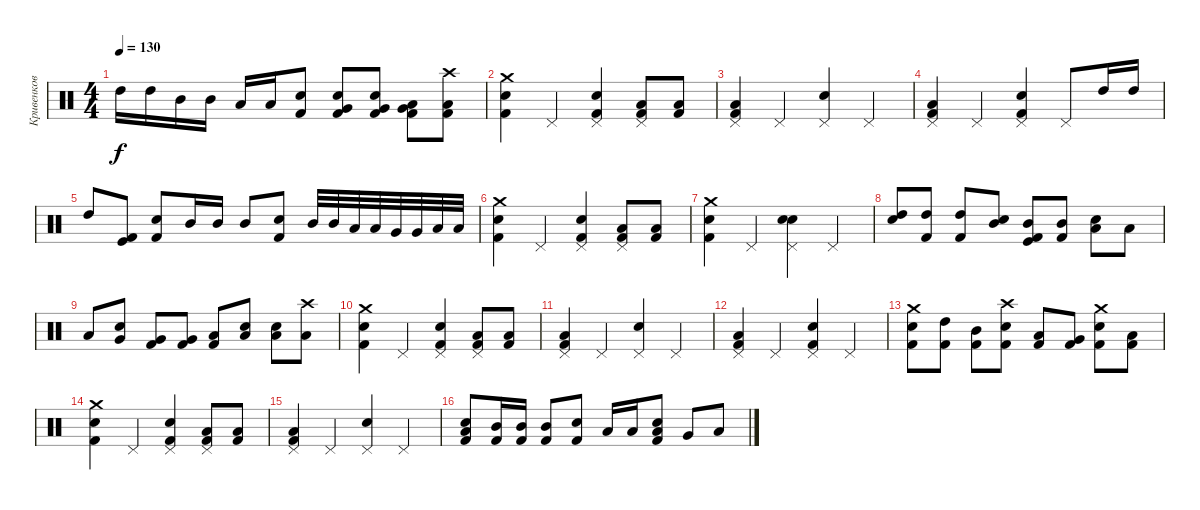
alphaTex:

\track ("Кривенков Дмитрий" "Кривенков ") {instrument percussion}
\staff {score}
\articulation defaults
\ts (4 4)
\tempo 130
\clef neutral
\ks c "High Tom (hit)".16{dy f} "High Tom (hit)".16 "Mid Tom (hit)".16 "Mid Tom (hit)".16 "Low Tom (hit)".16 "Low Tom (hit)".16
("Electric Snare (hit)" "Kick (hit) 2").8 ("Electric Snare (hit)" "Very Low Tom (hit)" "Kick (hit) 2").8 ("Electric Snare (hit)" "Very Low Tom (hit)" "Kick (hit) 2").8 ("Kick (hit) 2" "Low Floor Tom (hit)" "Very Low Tom (hit)").8 ("Crash high (hit)" "Kick (hit) 2" "Low Floor Tom (hit)").8 |
("Kick (hit) 2" "Electric Snare (hit)" "Crash medium (hit)").4 "Pedal Hi-Hat (hit)".4 ("Pedal Hi-Hat (hit)" "Kick (hit) 2" "Electric Snare (hit)").4 ("Kick (hit) 2" "Pedal Hi-Hat (hit)" "Low Floor Tom (hit)").8 ("Low Floor Tom (hit)" "Kick (hit) 2").8 |
("Kick (hit) 2" "Pedal Hi-Hat (hit)" "Low Floor Tom (hit)").4 "Pedal Hi-Hat (hit)".4 ("Pedal Hi-Hat (hit)" "Electric Snare (hit)").4 "Pedal Hi-Hat (hit)".4 |
("Kick (hit) 2" "Pedal Hi-Hat (hit)" "Low Floor Tom (hit)").4 "Pedal Hi-Hat (hit)".4 ("Kick (hit) 2" "Pedal Hi-Hat (hit)" "Electric Snare (hit)").4 "Pedal Hi-Hat (hit)".8 "High Tom (hit)".16 "High Tom (hit)".16 |
"High Tom (hit)".8 ("Kick (hit) 2" "Kick (hit)").8 ("Kick (hit) 2" "Electric Snare (hit)").8 "Mid Tom (hit)".16 "Mid Tom (hit)".16 "Mid Tom (hit)".8 ("Kick (hit) 2" "Electric Snare (hit)").8 "Mid Tom (hit)".32 "Mid Tom (hit)".32 "Low Tom (hit)".32 "Low Tom (hit)".32 "Very Low Tom (hit)".32 "Very Low Tom (hit)".32 "Low Floor Tom (hit)".32 "Low Floor Tom (hit)".32 |
("Kick (hit) 2" "Electric Snare (hit)" "Crash medium (hit)").4 "Pedal Hi-Hat (hit)".4 ("Pedal Hi-Hat (hit)" "Kick (hit) 2" "Electric Snare (hit)").4 ("Kick (hit) 2" "Pedal Hi-Hat (hit)" "Low Floor Tom (hit)").8 ("Low Floor Tom (hit)" "Kick (hit) 2").8 |
("Kick (hit) 2" "Electric Snare (hit)" "Crash medium (hit)").4 "Pedal Hi-Hat (hit)".4 ("Pedal Hi-Hat (hit)" "Snare (hit) 2" "Electric Snare (hit)").4 "Pedal Hi-Hat (hit)".4 |
("High Tom (hit)" "Electric Snare (hit)").8 ("High Tom (hit)" "Kick (hit) 2").8 ("High Tom (hit)" "Kick (hit) 2").8 ("Electric Snare (hit)" "Mid Tom (hit)").8 ("Kick (hit) 2" "Mid Tom (hit)" "Kick (hit)").8 ("Kick (hit) 2" "Mid Tom (hit)").8 ("Electric Snare (hit)" "Low Tom (hit)").8 "Low Tom (hit)".8 |
"Low Tom (hit)".8 ("Very Low Tom (hit)" "Snare (hit) 2").8 ("Very Low Tom (hit)" "Kick (hit) 2").8 ("Very Low Tom (hit)" "Kick (hit) 2").8 ("Low Floor Tom (hit)" "Kick (hit) 2").8 ("Low Floor Tom (hit)" "Electric Snare (hit)").8 ("Low Floor Tom (hit)" "Electric Snare (hit)").8 ("Low Floor Tom (hit)" "Crash high (hit)").8 |
("Kick (hit) 2" "Electric Snare (hit)" "Crash medium (hit)").4 "Pedal Hi-Hat (hit)".4 ("Pedal Hi-Hat (hit)" "Kick (hit) 2" "Snare (hit) 2").4 ("Kick (hit) 2" "Pedal Hi-Hat (hit)" "Low Floor Tom (hit)").8 ("Low Floor Tom (hit)" "Kick (hit) 2").8 |
("Kick (hit) 2" "Pedal Hi-Hat (hit)" "Low Floor Tom (hit)").4 "Pedal Hi-Hat (hit)".4 ("Pedal Hi-Hat (hit)" "Electric Snare (hit)").4 "Pedal Hi-Hat (hit)".4 |
("Kick (hit) 2" "Pedal Hi-Hat (hit)" "Low Floor Tom (hit)").4 "Pedal Hi-Hat (hit)".4 ("Kick (hit) 2" "Pedal Hi-Hat (hit)" "Electric Snare (hit)").4 "Pedal Hi-Hat (hit)".4 |
("Crash medium (hit)" "Electric Snare (hit)" "Kick (hit) 2").8 ("Kick (hit) 2" "High Tom (hit)").8 ("Mid Tom (hit)" "Kick (hit) 2").8 ("Crash high (hit)" "Electric Snare (hit)" "Kick (hit) 2").8 ("Kick (hit) 2" "Low Tom (hit)").8 ("Kick (hit) 2" "Very Low Tom (hit)").8 ("Crash medium (hit)" "Electric Snare (hit)" "Kick (hit) 2").8 ("Kick (hit) 2" "Low Floor Tom (hit)").8 |
("Kick (hit) 2" "Electric Snare (hit)" "Crash medium (hit)").4 "Pedal Hi-Hat (hit)".4 ("Pedal Hi-Hat (hit)" "Kick (hit) 2" "Electric Snare (hit)").4 ("Kick (hit) 2" "Pedal Hi-Hat (hit)" "Low Floor Tom (hit)").8 ("Low Floor Tom (hit)" "Kick (hit) 2").8 |
("Kick (hit) 2" "Pedal Hi-Hat (hit)" "Low Floor Tom (hit)").4 "Pedal Hi-Hat (hit)".4 ("Pedal Hi-Hat (hit)" "Electric Snare (hit)").4 "Pedal Hi-Hat (hit)".4 |
("Electric Snare (hit)" "Kick (hit) 2" "Low Floor Tom (hit)").8 ("Kick (hit) 2" "Mid Tom (hit)").16 ("Kick (hit) 2" "Mid Tom (hit)").16 ("Kick (hit) 2" "Mid Tom (hit)").8 ("Electric Snare (hit)" "Kick (hit) 2").8 "Low Tom (hit)".16 "Low Tom (hit)".16 ("Low Tom (hit)" "Kick (hit) 2" "Electric Snare (hit)").8 "Very Low Tom (hit)".8 "Low Floor Tom (hit)".8
